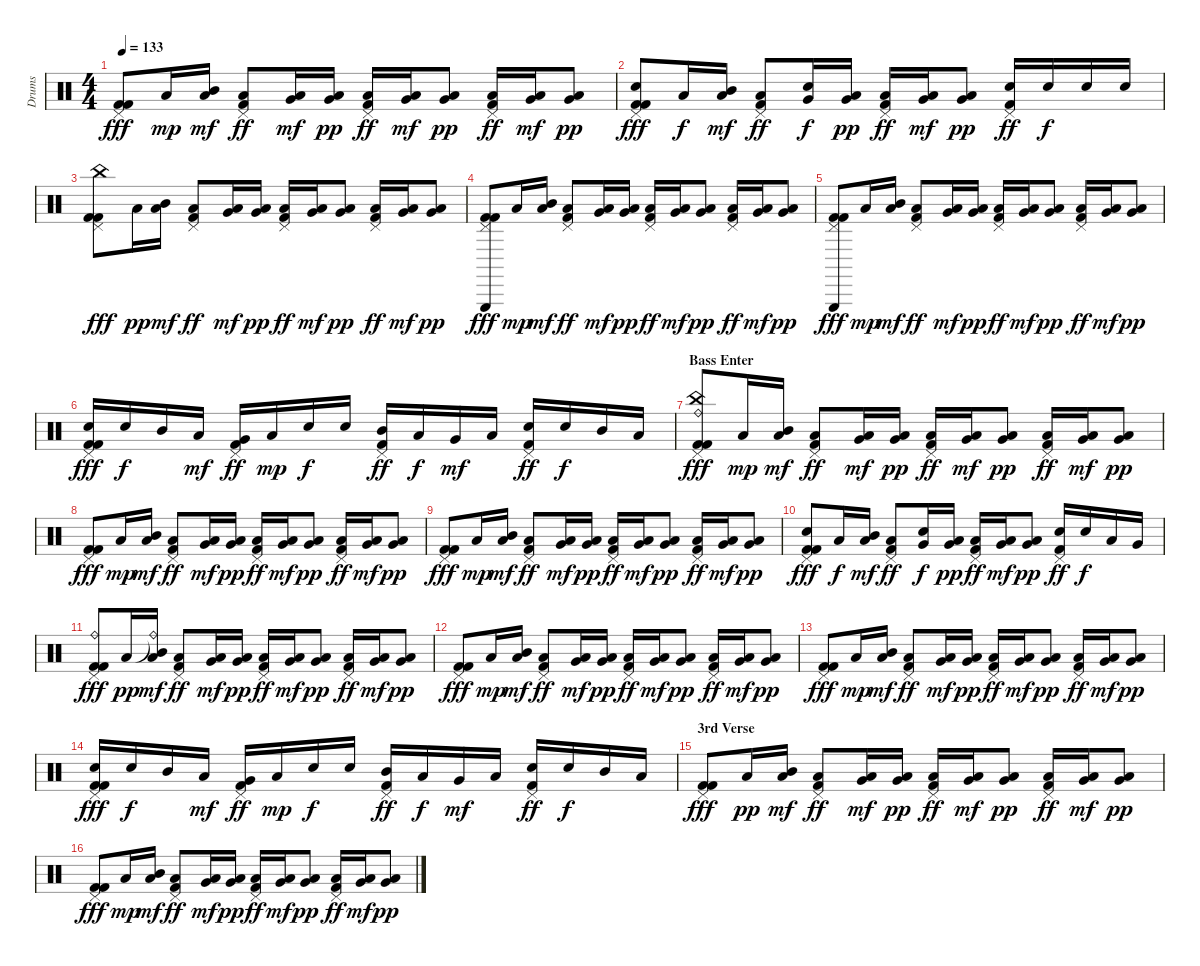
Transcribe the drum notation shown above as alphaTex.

\track ("Drums" "Drums") {instrument percussion}
\staff {score}
\articulation defaults
\ts (4 4)
\tempo 133
\clef neutral
\ks c
("Pedal Hi-Hat (hit)" "Kick (hit) 2" "Kick (hit) 2").8{dy fff} "Low Tom (hit)".16{dy mp} ("Mid Tom (hit)" "Low Tom (hit)").16{dy mf} ("Pedal Hi-Hat (hit)" "Low Tom (hit)" "Kick (hit) 2").8{dy ff} ("Low Tom (hit)" "Very Low Tom (hit)").16{dy mf} ("Low Tom (hit)" "Very Low Tom (hit)").16{dy pp} ("Pedal Hi-Hat (hit)" "Low Tom (hit)" "Kick (hit) 2").16{dy ff} ("Low Tom (hit)" "Very Low Tom (hit)").16{dy mf} ("Low Tom (hit)" "Very Low Tom (hit)").8{dy pp} ("Pedal Hi-Hat (hit)" "Low Tom (hit)" "Kick (hit) 2").16{dy ff} ("Low Tom (hit)" "Very Low Tom (hit)").16{dy mf} ("Low Tom (hit)" "Very Low Tom (hit)").8{dy pp} |
("Pedal Hi-Hat (hit)" "Electric Snare (hit)" "Kick (hit) 2" "Kick (hit) 2").8{dy fff} "Low Tom (hit)".16{dy f} ("Mid Tom (hit)" "Low Tom (hit)").16{dy mf} ("Pedal Hi-Hat (hit)" "Low Tom (hit)" "Kick (hit) 2").8{dy ff} ("Electric Snare (hit)" "Very Low Tom (hit)").16{dy f} ("Low Tom (hit)" "Very Low Tom (hit)").16{dy pp} ("Pedal Hi-Hat (hit)" "Low Tom (hit)" "Kick (hit) 2").16{dy ff} ("Low Tom (hit)" "Very Low Tom (hit)").16{dy mf} ("Low Tom (hit)" "Very Low Tom (hit)").8{dy pp} ("Pedal Hi-Hat (hit)" "Electric Snare (hit)" "Kick (hit) 2").16{dy ff} "Electric Snare (hit)".16{dy f} "Electric Snare (hit)".16 "Electric Snare (hit)".16 |
("China (hit)" "Pedal Hi-Hat (hit)" "Kick (hit) 2" "Kick (hit) 2").8{dy fff} "Low Tom (hit)".16{dy pp} ("Mid Tom (hit)" "Low Tom (hit)").16{dy mf} ("Pedal Hi-Hat (hit)" "Low Tom (hit)" "Kick (hit) 2").8{dy ff} ("Low Tom (hit)" "Very Low Tom (hit)").16{dy mf} ("Low Tom (hit)" "Very Low Tom (hit)").16{dy pp} ("Pedal Hi-Hat (hit)" "Low Tom (hit)" "Kick (hit) 2").16{dy ff} ("Low Tom (hit)" "Very Low Tom (hit)").16{dy mf} ("Low Tom (hit)" "Very Low Tom (hit)").8{dy pp} ("Pedal Hi-Hat (hit)" "Low Tom (hit)" "Kick (hit) 2").16{dy ff} ("Low Tom (hit)" "Very Low Tom (hit)").16{dy mf} ("Low Tom (hit)" "Very Low Tom (hit)").8{dy pp} |
("Pedal Hi-Hat (hit)" "Triangle (hit)" "Kick (hit) 2" "Kick (hit) 2").8{dy fff} "Low Tom (hit)".16{dy mp} ("Mid Tom (hit)" "Low Tom (hit)").16{dy mf} ("Pedal Hi-Hat (hit)" "Low Tom (hit)" "Kick (hit) 2").8{dy ff} ("Low Tom (hit)" "Very Low Tom (hit)").16{dy mf} ("Low Tom (hit)" "Very Low Tom (hit)").16{dy pp} ("Pedal Hi-Hat (hit)" "Low Tom (hit)" "Kick (hit) 2").16{dy ff} ("Low Tom (hit)" "Very Low Tom (hit)").16{dy mf} ("Low Tom (hit)" "Very Low Tom (hit)").8{dy pp} ("Pedal Hi-Hat (hit)" "Low Tom (hit)" "Kick (hit) 2").16{dy ff} ("Low Tom (hit)" "Very Low Tom (hit)").16{dy mf} ("Low Tom (hit)" "Very Low Tom (hit)").8{dy pp} |
("Pedal Hi-Hat (hit)" "Triangle (hit)" "Kick (hit) 2" "Kick (hit) 2").8{dy fff} "Low Tom (hit)".16{dy mp} ("Mid Tom (hit)" "Low Tom (hit)").16{dy mf} ("Pedal Hi-Hat (hit)" "Low Tom (hit)" "Kick (hit) 2").8{dy ff} ("Low Tom (hit)" "Very Low Tom (hit)").16{dy mf} ("Low Tom (hit)" "Very Low Tom (hit)").16{dy pp} ("Pedal Hi-Hat (hit)" "Low Tom (hit)" "Kick (hit) 2").16{dy ff} ("Low Tom (hit)" "Very Low Tom (hit)").16{dy mf} ("Low Tom (hit)" "Very Low Tom (hit)").8{dy pp} ("Pedal Hi-Hat (hit)" "Low Tom (hit)" "Kick (hit) 2").16{dy ff} ("Low Tom (hit)" "Very Low Tom (hit)").16{dy mf} ("Low Tom (hit)" "Very Low Tom (hit)").8{dy pp} |
("Pedal Hi-Hat (hit)" "Electric Snare (hit)" "Kick (hit) 2" "Kick (hit) 2").16{dy fff} "Electric Snare (hit)".16{dy f} "Mid Tom (hit)".16 "Low Tom (hit)".16{dy mf} ("Pedal Hi-Hat (hit)" "Very Low Tom (hit)" "Kick (hit) 2").16{dy ff} "Low Floor Tom (hit)".16{dy mp} "Electric Snare (hit)".16{dy f} "Electric Snare (hit)".16 ("Pedal Hi-Hat (hit)" "Mid Tom (hit)" "Kick (hit) 2").16{dy ff} "Low Tom (hit)".16{dy f} "Very Low Tom (hit)".16{dy mf} "Low Floor Tom (hit)".16 ("Pedal Hi-Hat (hit)" "Electric Snare (hit)" "Kick (hit) 2").16{dy ff} "Electric Snare (hit)".16{dy f} "Mid Tom (hit)".16 "Low Tom (hit)".16 |
\section ("" "Bass Enter")
("China (hit)" "Ride (bell)" "Pedal Hi-Hat (hit)" "Kick (hit) 2" "Kick (hit) 2").8{dy fff} "Low Tom (hit)".16{dy mp} ("Mid Tom (hit)" "Low Tom (hit)").16{dy mf} ("Pedal Hi-Hat (hit)" "Low Tom (hit)" "Kick (hit) 2").8{dy ff} ("Low Tom (hit)" "Very Low Tom (hit)").16{dy mf} ("Low Tom (hit)" "Very Low Tom (hit)").16{dy pp} ("Pedal Hi-Hat (hit)" "Low Tom (hit)" "Kick (hit) 2").16{dy ff} ("Low Tom (hit)" "Very Low Tom (hit)").16{dy mf} ("Low Tom (hit)" "Very Low Tom (hit)").8{dy pp} ("Pedal Hi-Hat (hit)" "Low Tom (hit)" "Kick (hit) 2").16{dy ff} ("Low Tom (hit)" "Very Low Tom (hit)").16{dy mf} ("Low Tom (hit)" "Very Low Tom (hit)").8{dy pp} |
("Pedal Hi-Hat (hit)" "Kick (hit) 2" "Kick (hit) 2").8{dy fff} "Low Tom (hit)".16{dy mp} ("Mid Tom (hit)" "Low Tom (hit)").16{dy mf} ("Pedal Hi-Hat (hit)" "Low Tom (hit)" "Kick (hit) 2").8{dy ff} ("Low Tom (hit)" "Very Low Tom (hit)").16{dy mf} ("Low Tom (hit)" "Very Low Tom (hit)").16{dy pp} ("Pedal Hi-Hat (hit)" "Low Tom (hit)" "Kick (hit) 2").16{dy ff} ("Low Tom (hit)" "Very Low Tom (hit)").16{dy mf} ("Low Tom (hit)" "Very Low Tom (hit)").8{dy pp} ("Pedal Hi-Hat (hit)" "Low Tom (hit)" "Kick (hit) 2").16{dy ff} ("Low Tom (hit)" "Very Low Tom (hit)").16{dy mf} ("Low Tom (hit)" "Very Low Tom (hit)").8{dy pp} |
("Pedal Hi-Hat (hit)" "Kick (hit) 2" "Kick (hit) 2").8{dy fff} "Low Tom (hit)".16{dy mp} ("Mid Tom (hit)" "Low Tom (hit)").16{dy mf} ("Pedal Hi-Hat (hit)" "Low Tom (hit)" "Kick (hit) 2").8{dy ff} ("Low Tom (hit)" "Very Low Tom (hit)").16{dy mf} ("Low Tom (hit)" "Very Low Tom (hit)").16{dy pp} ("Pedal Hi-Hat (hit)" "Low Tom (hit)" "Kick (hit) 2").16{dy ff} ("Low Tom (hit)" "Very Low Tom (hit)").16{dy mf} ("Low Tom (hit)" "Very Low Tom (hit)").8{dy pp} ("Pedal Hi-Hat (hit)" "Low Tom (hit)" "Kick (hit) 2").16{dy ff} ("Low Tom (hit)" "Very Low Tom (hit)").16{dy mf} ("Low Tom (hit)" "Very Low Tom (hit)").8{dy pp} |
("Pedal Hi-Hat (hit)" "Electric Snare (hit)" "Kick (hit) 2" "Kick (hit) 2").8{dy fff} "Low Tom (hit)".16{dy f} ("Mid Tom (hit)" "Low Tom (hit)").16{dy mf} ("Pedal Hi-Hat (hit)" "Low Tom (hit)" "Kick (hit) 2").8{dy ff} ("Electric Snare (hit)" "Very Low Tom (hit)").16{dy f} ("Low Tom (hit)" "Very Low Tom (hit)").16{dy pp} ("Pedal Hi-Hat (hit)" "Low Tom (hit)" "Kick (hit) 2").16{dy ff} ("Low Tom (hit)" "Very Low Tom (hit)").16{dy mf} ("Low Tom (hit)" "Very Low Tom (hit)").8{dy pp} ("Pedal Hi-Hat (hit)" "Electric Snare (hit)" "Kick (hit) 2").16{dy ff} "Electric Snare (hit)".16{dy f} "Low Tom (hit)".16 "Very Low Tom (hit)".16 |
("Ride (bell)" "Pedal Hi-Hat (hit)" "Kick (hit) 2" "Kick (hit) 2").8{dy fff} "Low Tom (hit)".16{dy pp} ("Ride (bell)"{t} "Mid Tom (hit)" "Low Tom (hit)").16{dy mf} ("Pedal Hi-Hat (hit)" "Low Tom (hit)" "Kick (hit) 2").8{dy ff} ("Low Tom (hit)" "Very Low Tom (hit)").16{dy mf} ("Low Tom (hit)" "Very Low Tom (hit)").16{dy pp} ("Pedal Hi-Hat (hit)" "Low Tom (hit)" "Kick (hit) 2").16{dy ff} ("Low Tom (hit)" "Very Low Tom (hit)").16{dy mf} ("Low Tom (hit)" "Very Low Tom (hit)").8{dy pp} ("Pedal Hi-Hat (hit)" "Low Tom (hit)" "Kick (hit) 2").16{dy ff} ("Low Tom (hit)" "Very Low Tom (hit)").16{dy mf} ("Low Tom (hit)" "Very Low Tom (hit)").8{dy pp} |
("Pedal Hi-Hat (hit)" "Kick (hit) 2" "Kick (hit) 2").8{dy fff} "Low Tom (hit)".16{dy mp} ("Mid Tom (hit)" "Low Tom (hit)").16{dy mf} ("Pedal Hi-Hat (hit)" "Low Tom (hit)" "Kick (hit) 2").8{dy ff} ("Low Tom (hit)" "Very Low Tom (hit)").16{dy mf} ("Low Tom (hit)" "Very Low Tom (hit)").16{dy pp} ("Pedal Hi-Hat (hit)" "Low Tom (hit)" "Kick (hit) 2").16{dy ff} ("Low Tom (hit)" "Very Low Tom (hit)").16{dy mf} ("Low Tom (hit)" "Very Low Tom (hit)").8{dy pp} ("Pedal Hi-Hat (hit)" "Low Tom (hit)" "Kick (hit) 2").16{dy ff} ("Low Tom (hit)" "Very Low Tom (hit)").16{dy mf} ("Low Tom (hit)" "Very Low Tom (hit)").8{dy pp} |
("Pedal Hi-Hat (hit)" "Kick (hit) 2" "Kick (hit) 2").8{dy fff} "Low Tom (hit)".16{dy mp} ("Mid Tom (hit)" "Low Tom (hit)").16{dy mf} ("Pedal Hi-Hat (hit)" "Low Tom (hit)" "Kick (hit) 2").8{dy ff} ("Low Tom (hit)" "Very Low Tom (hit)").16{dy mf} ("Low Tom (hit)" "Very Low Tom (hit)").16{dy pp} ("Pedal Hi-Hat (hit)" "Low Tom (hit)" "Kick (hit) 2").16{dy ff} ("Low Tom (hit)" "Very Low Tom (hit)").16{dy mf} ("Low Tom (hit)" "Very Low Tom (hit)").8{dy pp} ("Pedal Hi-Hat (hit)" "Low Tom (hit)" "Kick (hit) 2").16{dy ff} ("Low Tom (hit)" "Very Low Tom (hit)").16{dy mf} ("Low Tom (hit)" "Very Low Tom (hit)").8{dy pp} |
("Pedal Hi-Hat (hit)" "Electric Snare (hit)" "Kick (hit) 2" "Kick (hit) 2").16{dy fff} "Electric Snare (hit)".16{dy f} "Mid Tom (hit)".16 "Low Tom (hit)".16{dy mf} ("Pedal Hi-Hat (hit)" "Very Low Tom (hit)" "Kick (hit) 2").16{dy ff} "Low Floor Tom (hit)".16{dy mp} "Electric Snare (hit)".16{dy f} "Electric Snare (hit)".16 ("Pedal Hi-Hat (hit)" "Mid Tom (hit)" "Kick (hit) 2").16{dy ff} "Low Tom (hit)".16{dy f} "Very Low Tom (hit)".16{dy mf} "Low Floor Tom (hit)".16 ("Pedal Hi-Hat (hit)" "Electric Snare (hit)" "Kick (hit) 2").16{dy ff} "Electric Snare (hit)".16{dy f} "Mid Tom (hit)".16 "Low Tom (hit)".16 |
\section ("" "3rd Verse")
("Pedal Hi-Hat (hit)" "Kick (hit) 2" "Kick (hit) 2").8{dy fff} "Low Tom (hit)".16{dy pp} ("Mid Tom (hit)" "Low Tom (hit)").16{dy mf} ("Pedal Hi-Hat (hit)" "Low Tom (hit)" "Kick (hit) 2").8{dy ff} ("Low Tom (hit)" "Very Low Tom (hit)").16{dy mf} ("Low Tom (hit)" "Very Low Tom (hit)").16{dy pp} ("Pedal Hi-Hat (hit)" "Low Tom (hit)" "Kick (hit) 2").16{dy ff} ("Low Tom (hit)" "Very Low Tom (hit)").16{dy mf} ("Low Tom (hit)" "Very Low Tom (hit)").8{dy pp} ("Pedal Hi-Hat (hit)" "Low Tom (hit)" "Kick (hit) 2").16{dy ff} ("Low Tom (hit)" "Very Low Tom (hit)").16{dy mf} ("Low Tom (hit)" "Very Low Tom (hit)").8{dy pp} |
("Pedal Hi-Hat (hit)" "Kick (hit) 2" "Kick (hit) 2").8{dy fff} "Low Tom (hit)".16{dy mp} ("Mid Tom (hit)" "Low Tom (hit)").16{dy mf} ("Pedal Hi-Hat (hit)" "Low Tom (hit)" "Kick (hit) 2").8{dy ff} ("Low Tom (hit)" "Very Low Tom (hit)").16{dy mf} ("Low Tom (hit)" "Very Low Tom (hit)").16{dy pp} ("Pedal Hi-Hat (hit)" "Low Tom (hit)" "Kick (hit) 2").16{dy ff} ("Low Tom (hit)" "Very Low Tom (hit)").16{dy mf} ("Low Tom (hit)" "Very Low Tom (hit)").8{dy pp} ("Pedal Hi-Hat (hit)" "Low Tom (hit)" "Kick (hit) 2").16{dy ff} ("Low Tom (hit)" "Very Low Tom (hit)").16{dy mf} ("Low Tom (hit)" "Very Low Tom (hit)").8{dy pp}
